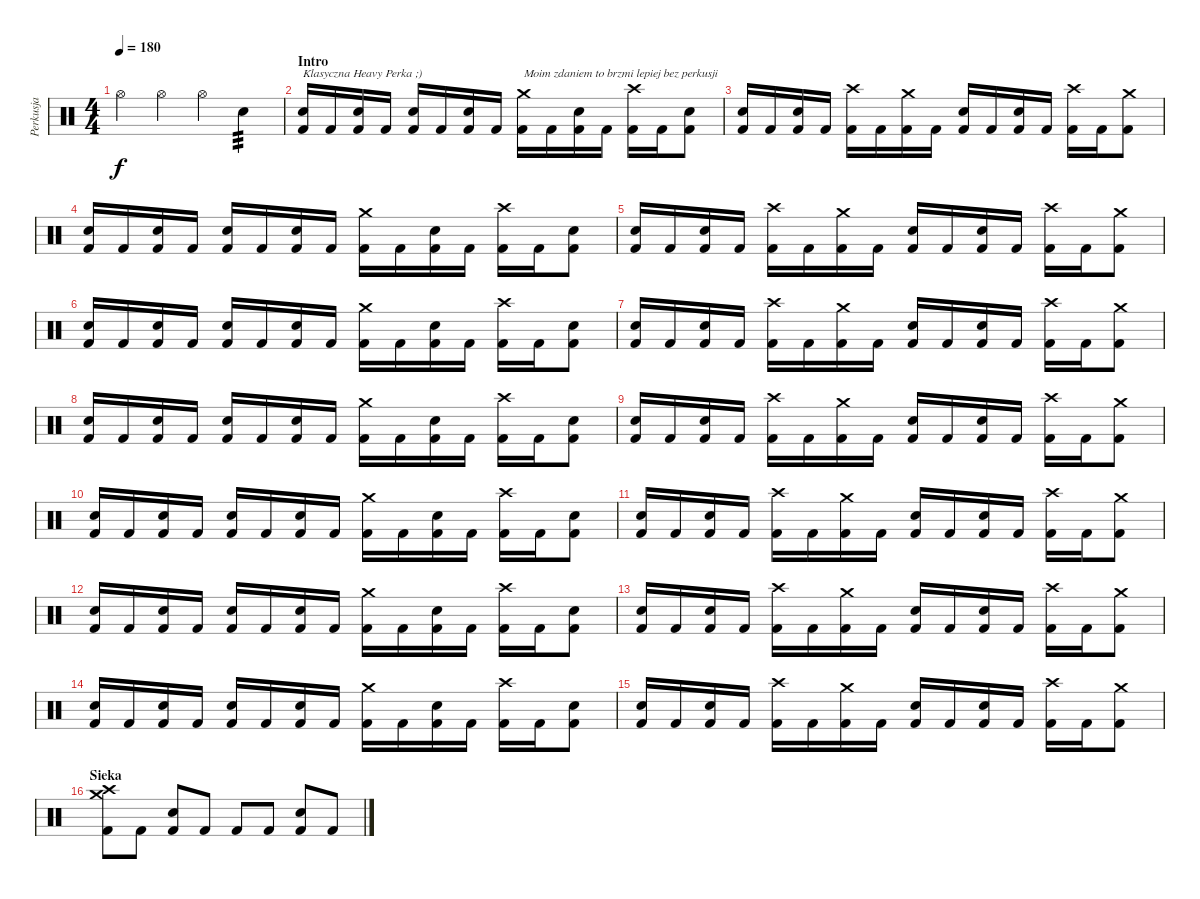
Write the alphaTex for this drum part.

\track ("Perkusja" "Perkusja") {instrument percussion}
\staff {score}
\articulation defaults
\ts (4 4)
\tempo 180
\clef neutral
\ks c "Hi-Hat (open)".4{dy f} "Hi-Hat (open)".4 "Hi-Hat (open)".4 "Snare (hit) 2".4{tp 3}
|
\section ("" "Intro")
("Snare (hit) 2" "Kick (hit) 2").16{txt "Klasyczna Heavy Perka ;)"} "Kick (hit) 2".16 ("Snare (hit) 2" "Kick (hit) 2").16 "Kick (hit) 2".16 ("Snare (hit) 2" "Kick (hit) 2").16 "Kick (hit) 2".16 ("Snare (hit) 2" "Kick (hit) 2").16 "Kick (hit) 2".16 ("Crash medium (hit)" "Kick (hit) 2").16{txt "Moim zdaniem to brzmi lepiej bez perkusji"} "Kick (hit) 2".16 ("Snare (hit) 2" "Kick (hit) 2").16 "Kick (hit) 2".16 ("Crash high (hit)" "Kick (hit) 2").16 "Kick (hit) 2".16 ("Snare (hit) 2" "Kick (hit) 2").8 |
("Snare (hit) 2" "Kick (hit) 2").16 "Kick (hit) 2".16 ("Snare (hit) 2" "Kick (hit) 2").16 "Kick (hit) 2".16 ("Crash high (hit)" "Kick (hit) 2").16 "Kick (hit) 2".16 ("Crash medium (hit)" "Kick (hit) 2").16 "Kick (hit) 2".16 ("Snare (hit) 2" "Kick (hit) 2").16 "Kick (hit) 2".16 ("Snare (hit) 2" "Kick (hit) 2").16 "Kick (hit) 2".16 ("Crash high (hit)" "Kick (hit) 2").16 "Kick (hit) 2".16 ("Crash medium (hit)" "Kick (hit) 2").8 |
("Snare (hit) 2" "Kick (hit) 2").16 "Kick (hit) 2".16 ("Snare (hit) 2" "Kick (hit) 2").16 "Kick (hit) 2".16 ("Snare (hit) 2" "Kick (hit) 2").16 "Kick (hit) 2".16 ("Snare (hit) 2" "Kick (hit) 2").16 "Kick (hit) 2".16 ("Crash medium (hit)" "Kick (hit) 2").16 "Kick (hit) 2".16 ("Snare (hit) 2" "Kick (hit) 2").16 "Kick (hit) 2".16 ("Crash high (hit)" "Kick (hit) 2").16 "Kick (hit) 2".16 ("Snare (hit) 2" "Kick (hit) 2").8 |
("Snare (hit) 2" "Kick (hit) 2").16 "Kick (hit) 2".16 ("Snare (hit) 2" "Kick (hit) 2").16 "Kick (hit) 2".16 ("Crash high (hit)" "Kick (hit) 2").16 "Kick (hit) 2".16 ("Crash medium (hit)" "Kick (hit) 2").16 "Kick (hit) 2".16 ("Snare (hit) 2" "Kick (hit) 2").16 "Kick (hit) 2".16 ("Snare (hit) 2" "Kick (hit) 2").16 "Kick (hit) 2".16 ("Crash high (hit)" "Kick (hit) 2").16 "Kick (hit) 2".16 ("Crash medium (hit)" "Kick (hit) 2").8 |
("Snare (hit) 2" "Kick (hit) 2").16 "Kick (hit) 2".16 ("Snare (hit) 2" "Kick (hit) 2").16 "Kick (hit) 2".16 ("Snare (hit) 2" "Kick (hit) 2").16 "Kick (hit) 2".16 ("Snare (hit) 2" "Kick (hit) 2").16 "Kick (hit) 2".16 ("Crash medium (hit)" "Kick (hit) 2").16 "Kick (hit) 2".16 ("Snare (hit) 2" "Kick (hit) 2").16 "Kick (hit) 2".16 ("Crash high (hit)" "Kick (hit) 2").16 "Kick (hit) 2".16 ("Snare (hit) 2" "Kick (hit) 2").8 |
("Snare (hit) 2" "Kick (hit) 2").16 "Kick (hit) 2".16 ("Snare (hit) 2" "Kick (hit) 2").16 "Kick (hit) 2".16 ("Crash high (hit)" "Kick (hit) 2").16 "Kick (hit) 2".16 ("Crash medium (hit)" "Kick (hit) 2").16 "Kick (hit) 2".16 ("Snare (hit) 2" "Kick (hit) 2").16 "Kick (hit) 2".16 ("Snare (hit) 2" "Kick (hit) 2").16 "Kick (hit) 2".16 ("Crash high (hit)" "Kick (hit) 2").16 "Kick (hit) 2".16 ("Crash medium (hit)" "Kick (hit) 2").8 |
("Snare (hit) 2" "Kick (hit) 2").16 "Kick (hit) 2".16 ("Snare (hit) 2" "Kick (hit) 2").16 "Kick (hit) 2".16 ("Snare (hit) 2" "Kick (hit) 2").16 "Kick (hit) 2".16 ("Snare (hit) 2" "Kick (hit) 2").16 "Kick (hit) 2".16 ("Crash medium (hit)" "Kick (hit) 2").16 "Kick (hit) 2".16 ("Snare (hit) 2" "Kick (hit) 2").16 "Kick (hit) 2".16 ("Crash high (hit)" "Kick (hit) 2").16 "Kick (hit) 2".16 ("Snare (hit) 2" "Kick (hit) 2").8 |
("Snare (hit) 2" "Kick (hit) 2").16 "Kick (hit) 2".16 ("Snare (hit) 2" "Kick (hit) 2").16 "Kick (hit) 2".16 ("Crash high (hit)" "Kick (hit) 2").16 "Kick (hit) 2".16 ("Crash medium (hit)" "Kick (hit) 2").16 "Kick (hit) 2".16 ("Snare (hit) 2" "Kick (hit) 2").16 "Kick (hit) 2".16 ("Snare (hit) 2" "Kick (hit) 2").16 "Kick (hit) 2".16 ("Crash high (hit)" "Kick (hit) 2").16 "Kick (hit) 2".16 ("Crash medium (hit)" "Kick (hit) 2").8 |
("Snare (hit) 2" "Kick (hit) 2").16 "Kick (hit) 2".16 ("Snare (hit) 2" "Kick (hit) 2").16 "Kick (hit) 2".16 ("Snare (hit) 2" "Kick (hit) 2").16 "Kick (hit) 2".16 ("Snare (hit) 2" "Kick (hit) 2").16 "Kick (hit) 2".16 ("Crash medium (hit)" "Kick (hit) 2").16 "Kick (hit) 2".16 ("Snare (hit) 2" "Kick (hit) 2").16 "Kick (hit) 2".16 ("Crash high (hit)" "Kick (hit) 2").16 "Kick (hit) 2".16 ("Snare (hit) 2" "Kick (hit) 2").8 |
("Snare (hit) 2" "Kick (hit) 2").16 "Kick (hit) 2".16 ("Snare (hit) 2" "Kick (hit) 2").16 "Kick (hit) 2".16 ("Crash high (hit)" "Kick (hit) 2").16 "Kick (hit) 2".16 ("Crash medium (hit)" "Kick (hit) 2").16 "Kick (hit) 2".16 ("Snare (hit) 2" "Kick (hit) 2").16 "Kick (hit) 2".16 ("Snare (hit) 2" "Kick (hit) 2").16 "Kick (hit) 2".16 ("Crash high (hit)" "Kick (hit) 2").16 "Kick (hit) 2".16 ("Crash medium (hit)" "Kick (hit) 2").8 |
("Snare (hit) 2" "Kick (hit) 2").16 "Kick (hit) 2".16 ("Snare (hit) 2" "Kick (hit) 2").16 "Kick (hit) 2".16 ("Snare (hit) 2" "Kick (hit) 2").16 "Kick (hit) 2".16 ("Snare (hit) 2" "Kick (hit) 2").16 "Kick (hit) 2".16 ("Crash medium (hit)" "Kick (hit) 2").16 "Kick (hit) 2".16 ("Snare (hit) 2" "Kick (hit) 2").16 "Kick (hit) 2".16 ("Crash high (hit)" "Kick (hit) 2").16 "Kick (hit) 2".16 ("Snare (hit) 2" "Kick (hit) 2").8 |
("Snare (hit) 2" "Kick (hit) 2").16 "Kick (hit) 2".16 ("Snare (hit) 2" "Kick (hit) 2").16 "Kick (hit) 2".16 ("Crash high (hit)" "Kick (hit) 2").16 "Kick (hit) 2".16 ("Crash medium (hit)" "Kick (hit) 2").16 "Kick (hit) 2".16 ("Snare (hit) 2" "Kick (hit) 2").16 "Kick (hit) 2".16 ("Snare (hit) 2" "Kick (hit) 2").16 "Kick (hit) 2".16 ("Crash high (hit)" "Kick (hit) 2").16 "Kick (hit) 2".16 ("Crash medium (hit)" "Kick (hit) 2").8 |
("Snare (hit) 2" "Kick (hit) 2").16 "Kick (hit) 2".16 ("Snare (hit) 2" "Kick (hit) 2").16 "Kick (hit) 2".16 ("Snare (hit) 2" "Kick (hit) 2").16 "Kick (hit) 2".16 ("Snare (hit) 2" "Kick (hit) 2").16 "Kick (hit) 2".16 ("Crash medium (hit)" "Kick (hit) 2").16 "Kick (hit) 2".16 ("Snare (hit) 2" "Kick (hit) 2").16 "Kick (hit) 2".16 ("Crash high (hit)" "Kick (hit) 2").16 "Kick (hit) 2".16 ("Snare (hit) 2" "Kick (hit) 2").8 |
("Snare (hit) 2" "Kick (hit) 2").16 "Kick (hit) 2".16 ("Snare (hit) 2" "Kick (hit) 2").16 "Kick (hit) 2".16 ("Crash high (hit)" "Kick (hit) 2").16 "Kick (hit) 2".16 ("Crash medium (hit)" "Kick (hit) 2").16 "Kick (hit) 2".16 ("Snare (hit) 2" "Kick (hit) 2").16 "Kick (hit) 2".16 ("Snare (hit) 2" "Kick (hit) 2").16 "Kick (hit) 2".16 ("Crash high (hit)" "Kick (hit) 2").16 "Kick (hit) 2".16 ("Crash medium (hit)" "Kick (hit) 2").8 |
\section ("" "Sieka")
("Crash high (hit)" "Crash medium (hit)" "Kick (hit) 2").8 "Kick (hit) 2".8 ("Snare (hit) 2" "Kick (hit) 2").8 "Kick (hit) 2".8 "Kick (hit) 2".8 "Kick (hit) 2".8 ("Kick (hit) 2" "Snare (hit) 2").8 "Kick (hit) 2".8
